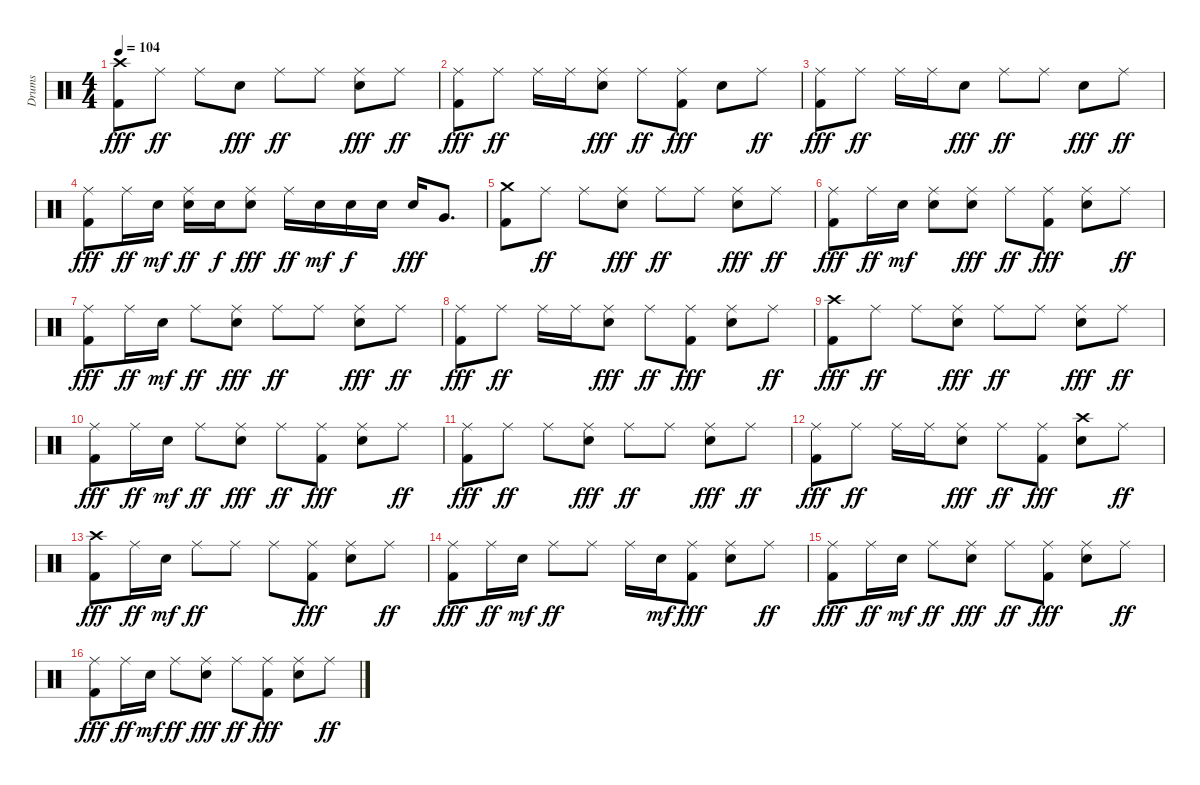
\track ("Drums" "Drums") {instrument percussion}
\staff {score}
\articulation defaults
\ts (4 4)
\tempo 104
\clef neutral
\ks c
("Crash high (hit)" "Kick (hit) 2").8{dy fff} "Ride (middle)".8{dy ff} "Ride (middle)".8 "Electric Snare (hit)".8{dy fff} "Ride (middle)".8{dy ff} "Ride (middle)".8 ("Ride (middle)" "Electric Snare (hit)").8{dy fff} "Ride (middle)".8{dy ff} |
("Ride (middle)" "Kick (hit) 2").8{dy fff} "Ride (middle)".8{dy ff} "Ride (middle)".16 "Ride (middle)".16 ("Ride (middle)" "Electric Snare (hit)").8{dy fff} "Ride (middle)".8{dy ff} ("Ride (middle)" "Kick (hit) 2").8{dy fff} "Electric Snare (hit)".8 "Ride (middle)".8{dy ff} |
("Ride (middle)" "Kick (hit) 2").8{dy fff} "Ride (middle)".8{dy ff} "Ride (middle)".16 "Ride (middle)".16 "Electric Snare (hit)".8{dy fff} "Ride (middle)".8{dy ff} "Ride (middle)".8 "Electric Snare (hit)".8{dy fff} "Ride (middle)".8{dy ff} |
("Ride (middle)" "Kick (hit) 2").8{dy fff} "Ride (middle)".16{dy ff} "Electric Snare (hit)".16{dy mf} ("Ride (middle)" "Electric Snare (hit)").16{dy ff} "Electric Snare (hit)".16{dy f} ("Ride (middle)" "Electric Snare (hit)").8{dy fff} "Ride (middle)".16{dy ff} "Electric Snare (hit)".16{dy mf} "Electric Snare (hit)".16{dy f} "Electric Snare (hit)".16 "Electric Snare (hit)".16{dy fff} "Very Low Tom (hit)".8{d} |
("Crash medium (hit)" "Kick (hit) 2").8 "Ride (middle)".8{dy ff} "Ride (middle)".8 ("Ride (middle)" "Electric Snare (hit)").8{dy fff} "Ride (middle)".8{dy ff} "Ride (middle)".8 ("Ride (middle)" "Electric Snare (hit)").8{dy fff} "Ride (middle)".8{dy ff} |
("Ride (middle)" "Kick (hit) 2").8{dy fff} "Ride (middle)".16{dy ff} "Electric Snare (hit)".16{dy mf} ("Ride (middle)" "Electric Snare (hit)").8 ("Ride (middle)" "Electric Snare (hit)").8{dy fff} "Ride (middle)".8{dy ff} ("Ride (middle)" "Kick (hit) 2").8{dy fff} ("Ride (middle)" "Electric Snare (hit)").8 "Ride (middle)".8{dy ff} |
("Ride (middle)" "Kick (hit) 2").8{dy fff} "Ride (middle)".16{dy ff} "Electric Snare (hit)".16{dy mf} "Ride (middle)".8{dy ff} ("Ride (middle)" "Electric Snare (hit)").8{dy fff} "Ride (middle)".8{dy ff} "Ride (middle)".8 ("Ride (middle)" "Electric Snare (hit)").8{dy fff} "Ride (middle)".8{dy ff} |
("Ride (middle)" "Kick (hit) 2").8{dy fff} "Ride (middle)".8{dy ff} "Ride (middle)".16 "Ride (middle)".16 ("Ride (middle)" "Electric Snare (hit)").8{dy fff} "Ride (middle)".8{dy ff} ("Ride (middle)" "Kick (hit) 2").8{dy fff} ("Ride (middle)" "Electric Snare (hit)").8 "Ride (middle)".8{dy ff} |
("Crash high (hit)" "Kick (hit) 2").8{dy fff} "Ride (middle)".8{dy ff} "Ride (middle)".8 ("Ride (middle)" "Electric Snare (hit)").8{dy fff} "Ride (middle)".8{dy ff} "Ride (middle)".8 ("Ride (middle)" "Electric Snare (hit)").8{dy fff} "Ride (middle)".8{dy ff} |
("Ride (middle)" "Kick (hit) 2").8{dy fff} "Ride (middle)".16{dy ff} "Electric Snare (hit)".16{dy mf} "Ride (middle)".8{dy ff} ("Ride (middle)" "Electric Snare (hit)").8{dy fff} "Ride (middle)".8{dy ff} ("Ride (middle)" "Kick (hit) 2").8{dy fff} ("Ride (middle)" "Electric Snare (hit)").8 "Ride (middle)".8{dy ff} |
("Ride (middle)" "Kick (hit) 2").8{dy fff} "Ride (middle)".8{dy ff} "Ride (middle)".8 ("Ride (middle)" "Electric Snare (hit)").8{dy fff} "Ride (middle)".8{dy ff} "Ride (middle)".8 ("Ride (middle)" "Electric Snare (hit)").8{dy fff} "Ride (middle)".8{dy ff} |
("Ride (middle)" "Kick (hit) 2").8{dy fff} "Ride (middle)".8{dy ff} "Ride (middle)".16 "Ride (middle)".16 ("Ride (middle)" "Electric Snare (hit)").8{dy fff} "Ride (middle)".8{dy ff} ("Ride (middle)" "Kick (hit) 2").8{dy fff} ("Crash high (hit)" "Electric Snare (hit)").8 "Ride (middle)".8{dy ff} |
("Crash high (hit)" "Kick (hit) 2").8{dy fff} "Ride (middle)".16{dy ff} "Electric Snare (hit)".16{dy mf} "Ride (middle)".8{dy ff} "Ride (middle)".8 "Ride (middle)".8 ("Ride (middle)" "Kick (hit) 2").8{dy fff} ("Ride (middle)" "Electric Snare (hit)").8 "Ride (middle)".8{dy ff} |
("Ride (middle)" "Kick (hit) 2").8{dy fff} "Ride (middle)".16{dy ff} "Electric Snare (hit)".16{dy mf} "Ride (middle)".8{dy ff} "Ride (middle)".8 "Ride (middle)".16 "Electric Snare (hit)".16{dy mf} ("Ride (middle)" "Kick (hit) 2").8{dy fff} ("Ride (middle)" "Electric Snare (hit)").8 "Ride (middle)".8{dy ff} |
("Ride (middle)" "Kick (hit) 2").8{dy fff} "Ride (middle)".16{dy ff} "Electric Snare (hit)".16{dy mf} "Ride (middle)".8{dy ff} ("Ride (middle)" "Electric Snare (hit)").8{dy fff} "Ride (middle)".8{dy ff} ("Ride (middle)" "Kick (hit) 2").8{dy fff} ("Ride (middle)" "Electric Snare (hit)").8 "Ride (middle)".8{dy ff} |
("Ride (middle)" "Kick (hit) 2").8{dy fff} "Ride (middle)".16{dy ff} "Electric Snare (hit)".16{dy mf} "Ride (middle)".8{dy ff} ("Ride (middle)" "Electric Snare (hit)").8{dy fff} "Ride (middle)".8{dy ff} ("Ride (middle)" "Kick (hit) 2").8{dy fff} ("Ride (middle)" "Electric Snare (hit)").8 "Ride (middle)".8{dy ff}
